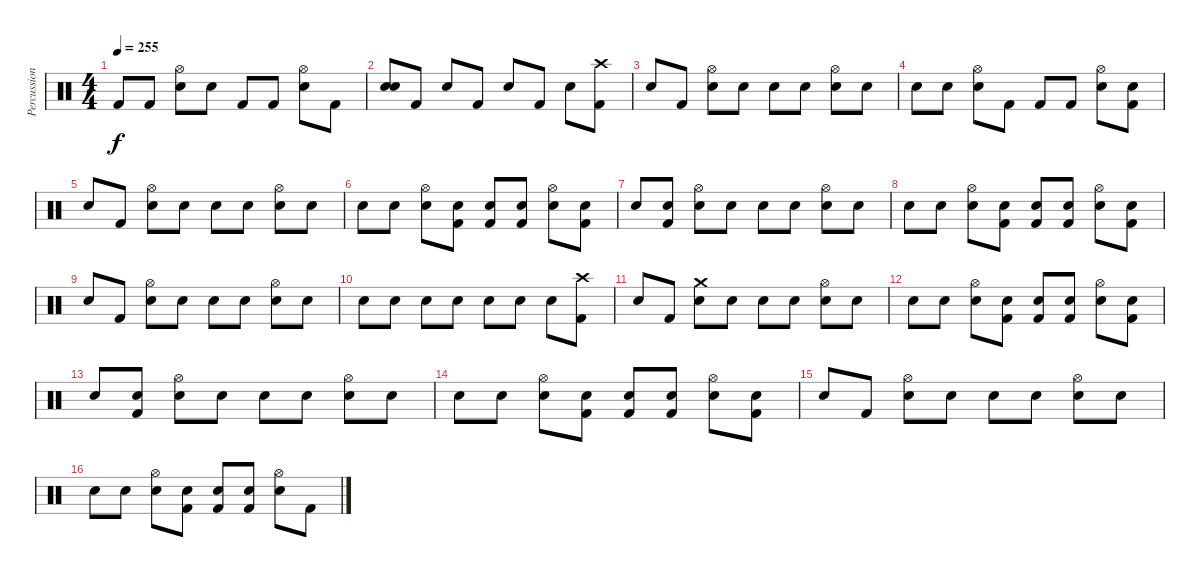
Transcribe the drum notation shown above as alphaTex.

\track ("Percussion" "Percussion") {instrument percussion}
\staff {score}
\articulation defaults
\ts (4 4)
\tempo 255
\clef neutral
\ks c "Kick (hit) 2".8{dy f} "Kick (hit) 2"{x}.8
("Snare (hit) 2" "Hi-Hat (open)").8 "Snare (hit)"{x}.8 "Kick (hit) 2".8 "Kick (hit) 2".8 ("Snare (hit) 2" "Hi-Hat (open)").8 "Kick (hit) 2".8 |
("Snare (hit)"{x} "Snare (hit) 2").8 "Kick (hit) 2".8 "Snare (hit) 2".8 "Kick (hit) 2".8 "Snare (hit) 2".8 "Kick (hit) 2".8 "Snare (hit) 2".8 ("Kick (hit) 2" "Crash high (hit)").8 |
"Snare (hit)"{x}.8 "Kick (hit) 2".8 ("Snare (hit) 2" "Hi-Hat (open)").8 "Snare (hit)"{x}.8 "Snare (hit)"{x}.8 "Snare (hit)"{x}.8 ("Snare (hit) 2" "Hi-Hat (open)").8 "Snare (hit)"{x}.8 |
"Snare (hit)"{x}.8 "Snare (hit)"{x}.8 ("Snare (hit) 2" "Hi-Hat (open)").8 "Kick (hit) 2".8 "Kick (hit) 2"{x}.8 "Kick (hit) 2".8 ("Snare (hit) 2" "Hi-Hat (open)").8 ("Kick (hit) 2" "Snare (hit)"{x}).8 |
"Snare (hit)"{x}.8 "Kick (hit) 2".8 ("Snare (hit) 2" "Hi-Hat (open)").8 "Snare (hit)"{x}.8 "Snare (hit)"{x}.8 "Snare (hit)"{x}.8 ("Snare (hit) 2" "Hi-Hat (open)").8 "Snare (hit)"{x}.8 |
"Snare (hit)"{x}.8 "Snare (hit)"{x}.8 ("Snare (hit) 2" "Hi-Hat (open)").8 ("Kick (hit) 2" "Snare (hit)"{x}).8 ("Kick (hit) 2"{x} "Snare (hit)"{x}).8 ("Kick (hit) 2" "Snare (hit)"{x}).8 ("Snare (hit) 2" "Hi-Hat (open)").8 ("Kick (hit) 2" "Snare (hit)"{x}).8 |
"Snare (hit)"{x}.8 ("Kick (hit) 2" "Snare (hit)"{x}).8 ("Snare (hit) 2" "Hi-Hat (open)").8 "Snare (hit)"{x}.8 "Snare (hit)"{x}.8 "Snare (hit)"{x}.8 ("Snare (hit) 2" "Hi-Hat (open)").8 "Snare (hit)"{x}.8 |
"Snare (hit)"{x}.8 "Snare (hit)"{x}.8 ("Snare (hit) 2" "Hi-Hat (open)").8 ("Kick (hit) 2" "Snare (hit)"{x}).8 ("Kick (hit) 2"{x} "Snare (hit)"{x}).8 ("Kick (hit) 2" "Snare (hit)"{x}).8 ("Snare (hit) 2" "Hi-Hat (open)").8 ("Kick (hit) 2" "Snare (hit)"{x}).8 |
"Snare (hit)"{x}.8 "Kick (hit) 2".8 ("Snare (hit) 2" "Hi-Hat (open)").8 "Snare (hit) 2"{x}.8 "Snare (hit) 2"{x}.8 "Snare (hit) 2"{x}.8 ("Snare (hit) 2" "Hi-Hat (open)").8 "Snare (hit) 2".8 |
"Snare (hit) 2".8 "Snare (hit) 2".8 "Snare (hit) 2".8 "Snare (hit) 2".8 "Snare (hit) 2".8 "Snare (hit) 2".8 "Snare (hit) 2".8 ("Kick (hit) 2" "Crash high (hit)").8 |
"Snare (hit)"{x}.8 "Kick (hit) 2".8 ("Snare (hit) 2" "Crash medium (hit)").8 "Snare (hit)"{x}.8 "Snare (hit)"{x}.8 "Snare (hit)"{x}.8 ("Snare (hit) 2" "Hi-Hat (open)").8 "Snare (hit)"{x}.8 |
"Snare (hit)"{x}.8 "Snare (hit)"{x}.8 ("Snare (hit) 2" "Hi-Hat (open)").8 ("Kick (hit) 2" "Snare (hit)"{x}).8 ("Kick (hit) 2"{x} "Snare (hit)"{x}).8 ("Kick (hit) 2" "Snare (hit)"{x}).8 ("Snare (hit) 2" "Hi-Hat (open)").8 ("Kick (hit) 2" "Snare (hit)"{x}).8 |
"Snare (hit)"{x}.8 ("Kick (hit) 2" "Snare (hit)"{x}).8 ("Snare (hit) 2" "Hi-Hat (open)").8 "Snare (hit)"{x}.8 "Snare (hit)"{x}.8 "Snare (hit)"{x}.8 ("Snare (hit) 2" "Hi-Hat (open)").8 "Snare (hit)"{x}.8 |
"Snare (hit)"{x}.8 "Snare (hit)"{x}.8 ("Snare (hit) 2" "Hi-Hat (open)").8 ("Kick (hit) 2" "Snare (hit)"{x}).8 ("Kick (hit) 2"{x} "Snare (hit)"{x}).8 ("Kick (hit) 2" "Snare (hit)"{x}).8 ("Snare (hit) 2" "Hi-Hat (open)").8 ("Kick (hit) 2" "Snare (hit)"{x}).8 |
"Snare (hit)"{x}.8 "Kick (hit) 2".8 ("Snare (hit) 2" "Hi-Hat (open)").8 "Snare (hit)"{x}.8 "Snare (hit)"{x}.8 "Snare (hit)"{x}.8 ("Snare (hit) 2" "Hi-Hat (open)").8 "Snare (hit)"{x}.8 |
"Snare (hit)"{x}.8 "Snare (hit)"{x}.8 ("Snare (hit) 2" "Hi-Hat (open)").8 ("Kick (hit) 2" "Snare (hit)"{x}).8 ("Kick (hit) 2"{x} "Snare (hit)"{x}).8 ("Kick (hit) 2" "Snare (hit)"{x}).8 ("Snare (hit) 2" "Hi-Hat (open)").8 "Kick (hit) 2".8
